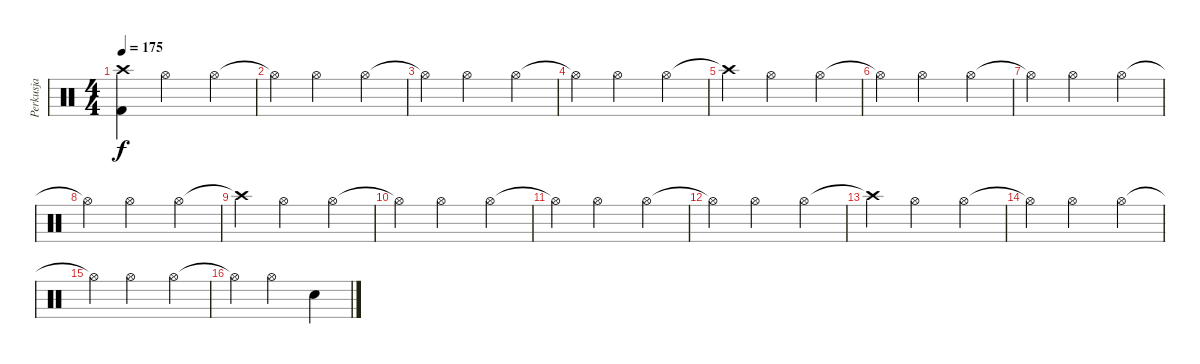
\track ("Perkusja" "Perkusja") {instrument percussion}
\staff {score}
\articulation defaults
\ts (4 4)
\tempo 175
\clef neutral
\ks c
("Kick (hit) 2" "Crash high (hit)").4{dy f} "Hi-Hat (open)".2 "Hi-Hat (open)".4 |
"Hi-Hat (open)"{t}.4 "Hi-Hat (open)".2 "Hi-Hat (open)".4 |
"Hi-Hat (open)"{t}.4 "Hi-Hat (open)".2 "Hi-Hat (open)".4 |
"Hi-Hat (open)"{t}.4 "Hi-Hat (open)".2 "Hi-Hat (open)".4 |
"Crash high (hit)"{t}.4 "Hi-Hat (open)".2 "Hi-Hat (open)".4 |
"Hi-Hat (open)"{t}.4 "Hi-Hat (open)".2 "Hi-Hat (open)".4 |
"Hi-Hat (open)"{t}.4 "Hi-Hat (open)".2 "Hi-Hat (open)".4 |
"Hi-Hat (open)"{t}.4 "Hi-Hat (open)".2 "Hi-Hat (open)".4 |
"Crash high (hit)"{t}.4 "Hi-Hat (open)".2 "Hi-Hat (open)".4 |
"Hi-Hat (open)"{t}.4 "Hi-Hat (open)".2 "Hi-Hat (open)".4 |
"Hi-Hat (open)"{t}.4 "Hi-Hat (open)".2 "Hi-Hat (open)".4 |
"Hi-Hat (open)"{t}.4 "Hi-Hat (open)".2 "Hi-Hat (open)".4 |
"Crash high (hit)"{t}.4 "Hi-Hat (open)".2 "Hi-Hat (open)".4 |
"Hi-Hat (open)"{t}.4 "Hi-Hat (open)".2 "Hi-Hat (open)".4 |
"Hi-Hat (open)"{t}.4 "Hi-Hat (open)".2 "Hi-Hat (open)".4 |
"Hi-Hat (open)"{t}.4 "Hi-Hat (open)".2 "Snare (hit) 2".4
